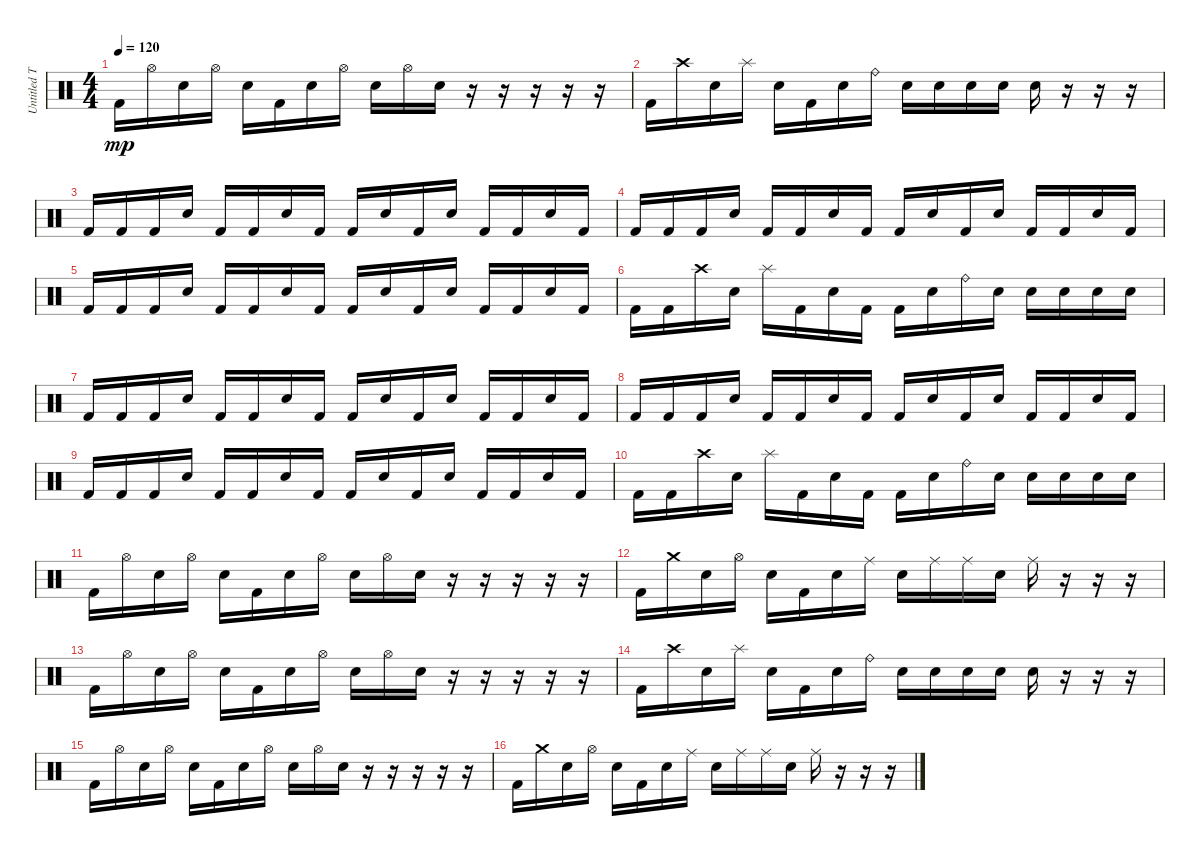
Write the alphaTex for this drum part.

\track ("Untitled Track" "Untitled T") {instrument percussion}
\staff {score}
\articulation defaults
\ts (4 4)
\tempo 120
\clef neutral
\ks c "Kick (hit) 2".16{dy mp} "Hi-Hat (open)".16 "Snare (hit) 2".16 "Hi-Hat (open)".16 "Snare (hit) 2".16 "Kick (hit) 2".16 "Snare (hit) 2".16 "Hi-Hat (open)".16 "Snare (hit) 2".16 "Hi-Hat (open)".16 "Snare (hit) 2".16
r.16 r.16 r.16 r.16 r.16 |
"Kick (hit) 2".16 "Crash high (hit)".16 "Snare (hit) 2".16 "Splash (hit)".16 "Snare (hit) 2".16 "Kick (hit) 2".16 "Snare (hit) 2".16 "Ride (bell)".16 "Snare (hit) 2".16 "Snare (hit) 2".16 "Snare (hit) 2".16 "Snare (hit) 2".16 "Snare (hit) 2".16 r.16 r.16 r.16 |
"Kick (hit) 2".16 "Kick (hit) 2".16 "Kick (hit) 2".16 "Snare (hit) 2".16 "Kick (hit) 2".16 "Kick (hit) 2".16 "Snare (hit) 2".16 "Kick (hit) 2".16 "Kick (hit) 2".16 "Snare (hit) 2".16 "Kick (hit) 2".16 "Snare (hit) 2".16 "Kick (hit) 2".16 "Kick (hit) 2".16 "Snare (hit) 2".16 "Kick (hit) 2".16 |
"Kick (hit) 2".16 "Kick (hit) 2".16 "Kick (hit) 2".16 "Snare (hit) 2".16 "Kick (hit) 2".16 "Kick (hit) 2".16 "Snare (hit) 2".16 "Kick (hit) 2".16 "Kick (hit) 2".16 "Snare (hit) 2".16 "Kick (hit) 2".16 "Snare (hit) 2".16 "Kick (hit) 2".16 "Kick (hit) 2".16 "Snare (hit) 2".16 "Kick (hit) 2".16 |
"Kick (hit) 2".16 "Kick (hit) 2".16 "Kick (hit) 2".16 "Snare (hit) 2".16 "Kick (hit) 2".16 "Kick (hit) 2".16 "Snare (hit) 2".16 "Kick (hit) 2".16 "Kick (hit) 2".16 "Snare (hit) 2".16 "Kick (hit) 2".16 "Snare (hit) 2".16 "Kick (hit) 2".16 "Kick (hit) 2".16 "Snare (hit) 2".16 "Kick (hit) 2".16 |
"Kick (hit) 2".16 "Kick (hit) 2".16 "Crash high (hit)".16 "Snare (hit) 2".16 "Splash (hit)".16 "Kick (hit) 2".16 "Snare (hit) 2".16 "Kick (hit) 2".16 "Kick (hit) 2".16 "Snare (hit) 2".16 "Ride (bell)".16 "Snare (hit) 2".16 "Snare (hit) 2".16 "Snare (hit) 2".16 "Snare (hit) 2".16 "Snare (hit) 2".16 |
"Kick (hit) 2".16 "Kick (hit) 2".16 "Kick (hit) 2".16 "Snare (hit) 2".16 "Kick (hit) 2".16 "Kick (hit) 2".16 "Snare (hit) 2".16 "Kick (hit) 2".16 "Kick (hit) 2".16 "Snare (hit) 2".16 "Kick (hit) 2".16 "Snare (hit) 2".16 "Kick (hit) 2".16 "Kick (hit) 2".16 "Snare (hit) 2".16 "Kick (hit) 2".16 |
"Kick (hit) 2".16 "Kick (hit) 2".16 "Kick (hit) 2".16 "Snare (hit) 2".16 "Kick (hit) 2".16 "Kick (hit) 2".16 "Snare (hit) 2".16 "Kick (hit) 2".16 "Kick (hit) 2".16 "Snare (hit) 2".16 "Kick (hit) 2".16 "Snare (hit) 2".16 "Kick (hit) 2".16 "Kick (hit) 2".16 "Snare (hit) 2".16 "Kick (hit) 2".16 |
"Kick (hit) 2".16 "Kick (hit) 2".16 "Kick (hit) 2".16 "Snare (hit) 2".16 "Kick (hit) 2".16 "Kick (hit) 2".16 "Snare (hit) 2".16 "Kick (hit) 2".16 "Kick (hit) 2".16 "Snare (hit) 2".16 "Kick (hit) 2".16 "Snare (hit) 2".16 "Kick (hit) 2".16 "Kick (hit) 2".16 "Snare (hit) 2".16 "Kick (hit) 2".16 |
"Kick (hit) 2".16 "Kick (hit) 2".16 "Crash high (hit)".16 "Snare (hit) 2".16 "Splash (hit)".16 "Kick (hit) 2".16 "Snare (hit) 2".16 "Kick (hit) 2".16 "Kick (hit) 2".16 "Snare (hit) 2".16 "Ride (bell)".16 "Snare (hit) 2".16 "Snare (hit) 2".16 "Snare (hit) 2".16 "Snare (hit) 2".16 "Snare (hit) 2".16 |
"Kick (hit) 2".16 "Hi-Hat (open)".16 "Snare (hit) 2".16 "Hi-Hat (open)".16 "Snare (hit) 2".16 "Kick (hit) 2".16 "Snare (hit) 2".16 "Hi-Hat (open)".16 "Snare (hit) 2".16 "Hi-Hat (open)".16 "Snare (hit) 2".16 r.16 r.16 r.16 r.16 r.16 |
"Kick (hit) 2".16 "Crash medium (hit)".16 "Snare (hit) 2".16 "Hi-Hat (open)".16 "Snare (hit) 2".16 "Kick (hit) 2".16 "Snare (hit) 2".16 "Ride (middle)".16 "Snare (hit) 2".16 "Ride (middle)".16 "Ride (middle)".16 "Snare (hit) 2".16 "Ride (middle)".16 r.16 r.16 r.16 |
"Kick (hit) 2".16 "Hi-Hat (open)".16 "Snare (hit) 2".16 "Hi-Hat (open)".16 "Snare (hit) 2".16 "Kick (hit) 2".16 "Snare (hit) 2".16 "Hi-Hat (open)".16 "Snare (hit) 2".16 "Hi-Hat (open)".16 "Snare (hit) 2".16 r.16 r.16 r.16 r.16 r.16 |
"Kick (hit) 2".16 "Crash high (hit)".16 "Snare (hit) 2".16 "Splash (hit)".16 "Snare (hit) 2".16 "Kick (hit) 2".16 "Snare (hit) 2".16 "Ride (bell)".16 "Snare (hit) 2".16 "Snare (hit) 2".16 "Snare (hit) 2".16 "Snare (hit) 2".16 "Snare (hit) 2".16 r.16 r.16 r.16 |
"Kick (hit) 2".16 "Hi-Hat (open)".16 "Snare (hit) 2".16 "Hi-Hat (open)".16 "Snare (hit) 2".16 "Kick (hit) 2".16 "Snare (hit) 2".16 "Hi-Hat (open)".16 "Snare (hit) 2".16 "Hi-Hat (open)".16 "Snare (hit) 2".16 r.16 r.16 r.16 r.16 r.16 |
"Kick (hit) 2".16 "Crash medium (hit)".16 "Snare (hit) 2".16 "Hi-Hat (open)".16 "Snare (hit) 2".16 "Kick (hit) 2".16 "Snare (hit) 2".16 "Ride (middle)".16 "Snare (hit) 2".16 "Ride (middle)".16 "Ride (middle)".16 "Snare (hit) 2".16 "Ride (middle)".16 r.16 r.16 r.16
